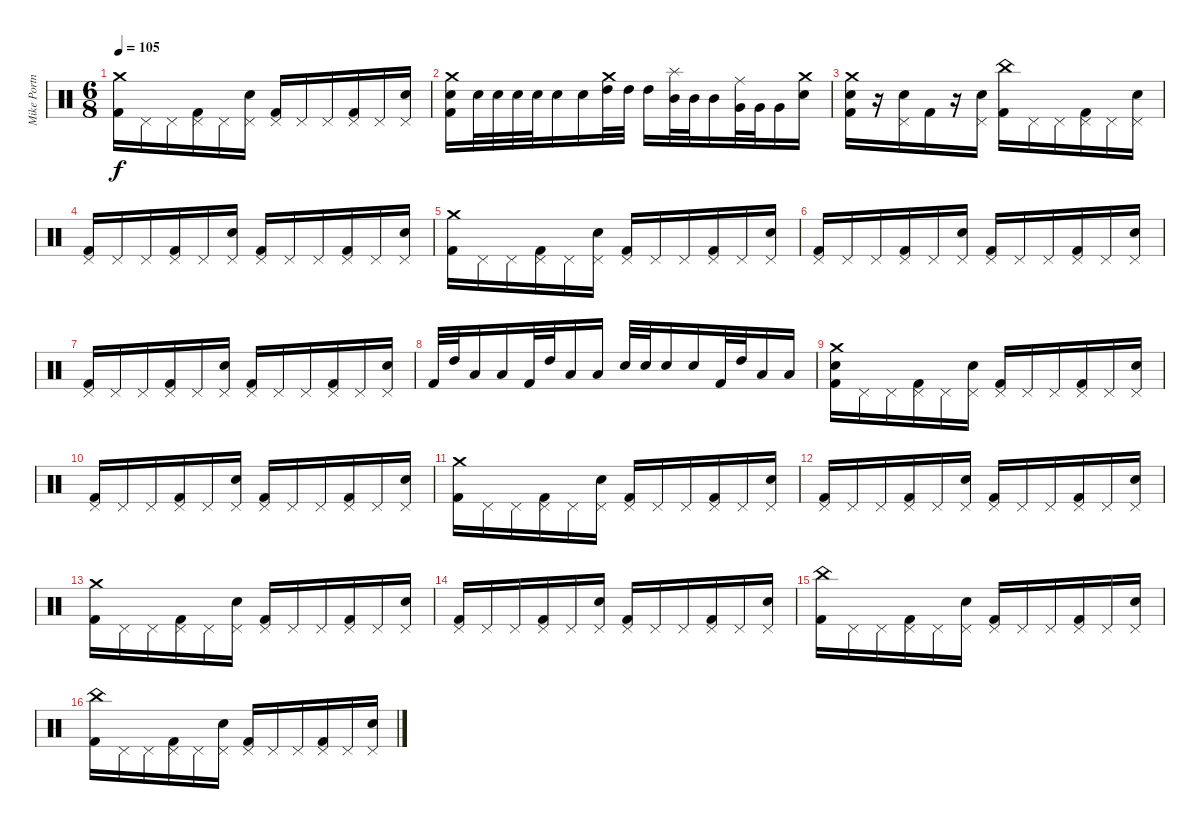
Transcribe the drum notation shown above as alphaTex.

\track ("Mike Portnoy" "Mike Portn") {instrument percussion}
\staff {score}
\articulation defaults
\ts (6 8)
\tempo 105
\clef neutral
\ks c
("Crash medium (hit)" "Kick (hit) 2").16{dy f} "Pedal Hi-Hat (hit)".16 "Pedal Hi-Hat (hit)".16 ("Pedal Hi-Hat (hit)" "Kick (hit) 2").16 "Pedal Hi-Hat (hit)".16 ("Pedal Hi-Hat (hit)" "Electric Snare (hit)").16 ("Pedal Hi-Hat (hit)" "Kick (hit) 2").16 "Pedal Hi-Hat (hit)".16 "Pedal Hi-Hat (hit)".16 ("Pedal Hi-Hat (hit)" "Kick (hit) 2").16 "Pedal Hi-Hat (hit)".16 ("Pedal Hi-Hat (hit)" "Electric Snare (hit)").16 |
("Crash medium (hit)" "Electric Snare (hit)" "Kick (hit) 2").16 "Electric Snare (hit)".32 "Electric Snare (hit)".32 "Electric Snare (hit)".32 "Electric Snare (hit)".32 "Electric Snare (hit)".16 "Electric Snare (hit)".16 ("Crash medium (hit)" "High Tom (hit)").32 "High Tom (hit)".32 "High Tom (hit)".16 ("Splash (hit)" "Mid Tom (hit)").32 "Mid Tom (hit)".32 "Mid Tom (hit)".16 ("Ride (middle)" "Very Low Tom (hit)").32 "Very Low Tom (hit)".32 "Very Low Tom (hit)".16 ("Crash medium (hit)" "Electric Snare (hit)").16 |
("Crash medium (hit)" "Electric Snare (hit)" "Kick (hit) 2").16 r.16 ("Pedal Hi-Hat (hit)" "Electric Snare (hit)").16 "Kick (hit) 2".16 r.16 ("Pedal Hi-Hat (hit)" "Electric Snare (hit)").16 ("China (hit)" "Kick (hit) 2").16 "Pedal Hi-Hat (hit)".16 "Pedal Hi-Hat (hit)".16 ("Pedal Hi-Hat (hit)" "Kick (hit) 2").16 "Pedal Hi-Hat (hit)".16 ("Pedal Hi-Hat (hit)" "Electric Snare (hit)").16 |
("Pedal Hi-Hat (hit)" "Kick (hit) 2").16 "Pedal Hi-Hat (hit)".16 "Pedal Hi-Hat (hit)".16 ("Pedal Hi-Hat (hit)" "Kick (hit) 2").16 "Pedal Hi-Hat (hit)".16 ("Pedal Hi-Hat (hit)" "Electric Snare (hit)").16 ("Pedal Hi-Hat (hit)" "Kick (hit) 2").16 "Pedal Hi-Hat (hit)".16 "Pedal Hi-Hat (hit)".16 ("Pedal Hi-Hat (hit)" "Kick (hit) 2").16 "Pedal Hi-Hat (hit)".16 ("Pedal Hi-Hat (hit)" "Electric Snare (hit)").16 |
("Crash medium (hit)" "Kick (hit) 2").16 "Pedal Hi-Hat (hit)".16 "Pedal Hi-Hat (hit)".16 ("Pedal Hi-Hat (hit)" "Kick (hit) 2").16 "Pedal Hi-Hat (hit)".16 ("Pedal Hi-Hat (hit)" "Electric Snare (hit)").16 ("Pedal Hi-Hat (hit)" "Kick (hit) 2").16 "Pedal Hi-Hat (hit)".16 "Pedal Hi-Hat (hit)".16 ("Pedal Hi-Hat (hit)" "Kick (hit) 2").16 "Pedal Hi-Hat (hit)".16 ("Pedal Hi-Hat (hit)" "Electric Snare (hit)").16 |
("Pedal Hi-Hat (hit)" "Kick (hit) 2").16 "Pedal Hi-Hat (hit)".16 "Pedal Hi-Hat (hit)".16 ("Pedal Hi-Hat (hit)" "Kick (hit) 2").16 "Pedal Hi-Hat (hit)".16 ("Pedal Hi-Hat (hit)" "Electric Snare (hit)").16 ("Pedal Hi-Hat (hit)" "Kick (hit) 2").16 "Pedal Hi-Hat (hit)".16 "Pedal Hi-Hat (hit)".16 ("Pedal Hi-Hat (hit)" "Kick (hit) 2").16 "Pedal Hi-Hat (hit)".16 ("Pedal Hi-Hat (hit)" "Electric Snare (hit)").16 |
("Pedal Hi-Hat (hit)" "Kick (hit) 2").16 "Pedal Hi-Hat (hit)".16 "Pedal Hi-Hat (hit)".16 ("Pedal Hi-Hat (hit)" "Kick (hit) 2").16 "Pedal Hi-Hat (hit)".16 ("Pedal Hi-Hat (hit)" "Electric Snare (hit)").16 ("Pedal Hi-Hat (hit)" "Kick (hit) 2").16 "Pedal Hi-Hat (hit)".16 "Pedal Hi-Hat (hit)".16 ("Pedal Hi-Hat (hit)" "Kick (hit) 2").16 "Pedal Hi-Hat (hit)".16 ("Pedal Hi-Hat (hit)" "Electric Snare (hit)").16 |
"Kick (hit) 2".32 "High Tom (hit)".32 "Low Tom (hit)".16 "Low Tom (hit)".16 "Kick (hit) 2".32 "High Tom (hit)".32 "Low Tom (hit)".16 "Low Tom (hit)".16 "Electric Snare (hit)".32 "Electric Snare (hit)".32 "Electric Snare (hit)".16 "Electric Snare (hit)".16 "Kick (hit) 2".32 "High Tom (hit)".32 "Low Tom (hit)".16 "Low Tom (hit)".16 |
("Crash medium (hit)" "Electric Snare (hit)" "Kick (hit) 2").16 "Pedal Hi-Hat (hit)".16 "Pedal Hi-Hat (hit)".16 ("Pedal Hi-Hat (hit)" "Kick (hit) 2").16 "Pedal Hi-Hat (hit)".16 ("Pedal Hi-Hat (hit)" "Electric Snare (hit)").16 ("Pedal Hi-Hat (hit)" "Kick (hit) 2").16 "Pedal Hi-Hat (hit)".16 "Pedal Hi-Hat (hit)".16 ("Pedal Hi-Hat (hit)" "Kick (hit) 2").16 "Pedal Hi-Hat (hit)".16 ("Pedal Hi-Hat (hit)" "Electric Snare (hit)").16 |
("Pedal Hi-Hat (hit)" "Kick (hit) 2").16 "Pedal Hi-Hat (hit)".16 "Pedal Hi-Hat (hit)".16 ("Pedal Hi-Hat (hit)" "Kick (hit) 2").16 "Pedal Hi-Hat (hit)".16 ("Pedal Hi-Hat (hit)" "Electric Snare (hit)").16 ("Pedal Hi-Hat (hit)" "Kick (hit) 2").16 "Pedal Hi-Hat (hit)".16 "Pedal Hi-Hat (hit)".16 ("Pedal Hi-Hat (hit)" "Kick (hit) 2").16 "Pedal Hi-Hat (hit)".16 ("Pedal Hi-Hat (hit)" "Electric Snare (hit)").16 |
("Crash medium (hit)" "Kick (hit) 2").16 "Pedal Hi-Hat (hit)".16 "Pedal Hi-Hat (hit)".16 ("Pedal Hi-Hat (hit)" "Kick (hit) 2").16 "Pedal Hi-Hat (hit)".16 ("Pedal Hi-Hat (hit)" "Electric Snare (hit)").16 ("Pedal Hi-Hat (hit)" "Kick (hit) 2").16 "Pedal Hi-Hat (hit)".16 "Pedal Hi-Hat (hit)".16 ("Pedal Hi-Hat (hit)" "Kick (hit) 2").16 "Pedal Hi-Hat (hit)".16 ("Pedal Hi-Hat (hit)" "Electric Snare (hit)").16 |
("Pedal Hi-Hat (hit)" "Kick (hit) 2").16 "Pedal Hi-Hat (hit)".16 "Pedal Hi-Hat (hit)".16 ("Pedal Hi-Hat (hit)" "Kick (hit) 2").16 "Pedal Hi-Hat (hit)".16 ("Pedal Hi-Hat (hit)" "Electric Snare (hit)").16 ("Pedal Hi-Hat (hit)" "Kick (hit) 2").16 "Pedal Hi-Hat (hit)".16 "Pedal Hi-Hat (hit)".16 ("Pedal Hi-Hat (hit)" "Kick (hit) 2").16 "Pedal Hi-Hat (hit)".16 ("Pedal Hi-Hat (hit)" "Electric Snare (hit)").16 |
("Crash medium (hit)" "Kick (hit) 2").16 "Pedal Hi-Hat (hit)".16 "Pedal Hi-Hat (hit)".16 ("Pedal Hi-Hat (hit)" "Kick (hit) 2").16 "Pedal Hi-Hat (hit)".16 ("Pedal Hi-Hat (hit)" "Electric Snare (hit)").16 ("Pedal Hi-Hat (hit)" "Kick (hit) 2").16 "Pedal Hi-Hat (hit)".16 "Pedal Hi-Hat (hit)".16 ("Pedal Hi-Hat (hit)" "Kick (hit) 2").16 "Pedal Hi-Hat (hit)".16 ("Pedal Hi-Hat (hit)" "Electric Snare (hit)").16 |
("Pedal Hi-Hat (hit)" "Kick (hit) 2").16 "Pedal Hi-Hat (hit)".16 "Pedal Hi-Hat (hit)".16 ("Pedal Hi-Hat (hit)" "Kick (hit) 2").16 "Pedal Hi-Hat (hit)".16 ("Pedal Hi-Hat (hit)" "Electric Snare (hit)").16 ("Pedal Hi-Hat (hit)" "Kick (hit) 2").16 "Pedal Hi-Hat (hit)".16 "Pedal Hi-Hat (hit)".16 ("Pedal Hi-Hat (hit)" "Kick (hit) 2").16 "Pedal Hi-Hat (hit)".16 ("Pedal Hi-Hat (hit)" "Electric Snare (hit)").16 |
("China (hit)" "Kick (hit) 2").16 "Pedal Hi-Hat (hit)".16 "Pedal Hi-Hat (hit)".16 ("Pedal Hi-Hat (hit)" "Kick (hit) 2").16 "Pedal Hi-Hat (hit)".16 ("Pedal Hi-Hat (hit)" "Electric Snare (hit)").16 ("Pedal Hi-Hat (hit)" "Kick (hit) 2").16 "Pedal Hi-Hat (hit)".16 "Pedal Hi-Hat (hit)".16 ("Pedal Hi-Hat (hit)" "Kick (hit) 2").16 "Pedal Hi-Hat (hit)".16 ("Pedal Hi-Hat (hit)" "Electric Snare (hit)").16 |
("China (hit)" "Kick (hit) 2").16 "Pedal Hi-Hat (hit)".16 "Pedal Hi-Hat (hit)".16 ("Pedal Hi-Hat (hit)" "Kick (hit) 2").16 "Pedal Hi-Hat (hit)".16 ("Pedal Hi-Hat (hit)" "Electric Snare (hit)").16 ("Pedal Hi-Hat (hit)" "Kick (hit) 2").16 "Pedal Hi-Hat (hit)".16 "Pedal Hi-Hat (hit)".16 ("Pedal Hi-Hat (hit)" "Kick (hit) 2").16 "Pedal Hi-Hat (hit)".16 ("Pedal Hi-Hat (hit)" "Electric Snare (hit)").16
